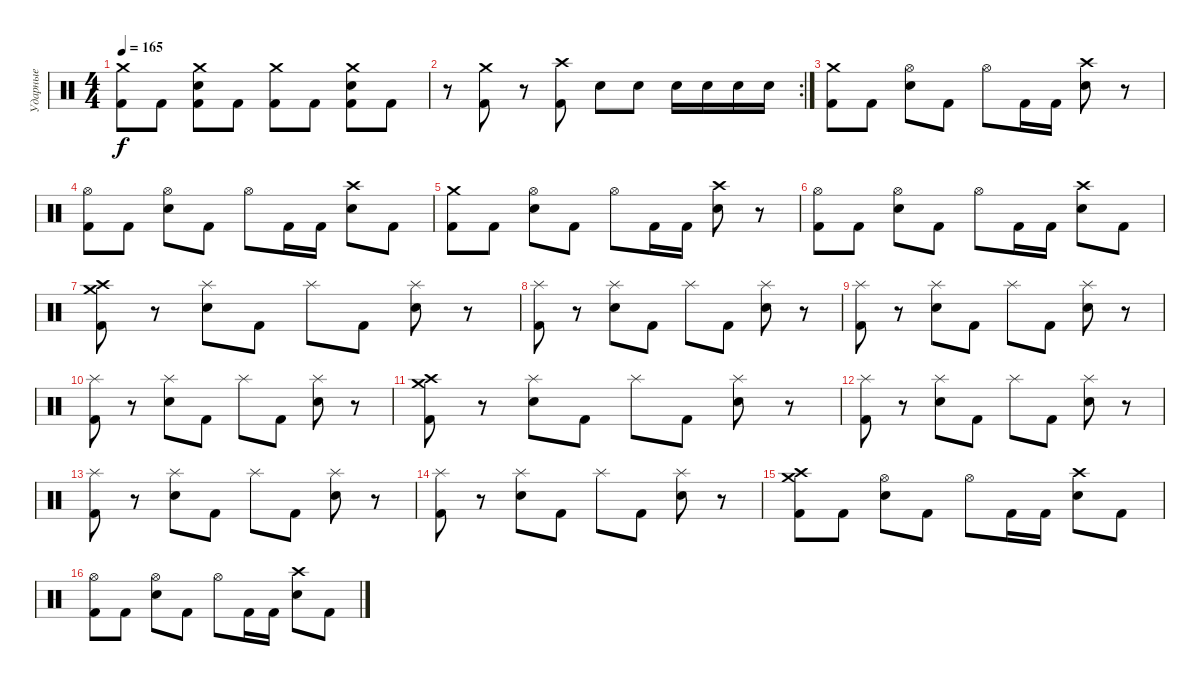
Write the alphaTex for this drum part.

\track ("Ударные" "Ударные") {instrument percussion}
\staff {score}
\articulation defaults
\ts (4 4)
\tempo 165
\clef neutral
\ks c
("Crash medium (hit)" "Kick (hit) 2").8{dy f} "Kick (hit) 2".8 ("Crash medium (hit)" "Electric Snare (hit)" "Kick (hit) 2").8 "Kick (hit) 2".8 ("Crash medium (hit)" "Kick (hit) 2").8 "Kick (hit) 2".8 ("Crash medium (hit)" "Electric Snare (hit)" "Kick (hit) 2").8 "Kick (hit) 2".8 |
\rc 2
r.8 ("Crash medium (hit)" "Kick (hit) 2").8 r.8 ("Crash high (hit)" "Kick (hit) 2").8 "Electric Snare (hit)".8 "Electric Snare (hit)".8 "Electric Snare (hit)".16 "Electric Snare (hit)".16 "Electric Snare (hit)".16 "Electric Snare (hit)".16 |
("Crash medium (hit)" "Kick (hit) 2").8 "Kick (hit) 2".8 ("Hi-Hat (open)" "Electric Snare (hit)").8 "Kick (hit) 2".8 "Hi-Hat (open)".8 "Kick (hit) 2".16 "Kick (hit) 2".16 ("Crash high (hit)" "Electric Snare (hit)").8 r.8 |
("Hi-Hat (open)" "Kick (hit) 2").8 "Kick (hit) 2".8 ("Hi-Hat (open)" "Electric Snare (hit)").8 "Kick (hit) 2".8 "Hi-Hat (open)".8 "Kick (hit) 2".16 "Kick (hit) 2".16 ("Crash high (hit)" "Electric Snare (hit)").8 "Kick (hit) 2".8 |
("Crash medium (hit)" "Kick (hit) 2").8 "Kick (hit) 2".8 ("Hi-Hat (open)" "Electric Snare (hit)").8 "Kick (hit) 2".8 "Hi-Hat (open)".8 "Kick (hit) 2".16 "Kick (hit) 2".16 ("Crash high (hit)" "Electric Snare (hit)").8 r.8 |
("Hi-Hat (open)" "Kick (hit) 2").8 "Kick (hit) 2".8 ("Hi-Hat (open)" "Electric Snare (hit)").8 "Kick (hit) 2".8 "Hi-Hat (open)".8 "Kick (hit) 2".16 "Kick (hit) 2".16 ("Crash high (hit)" "Electric Snare (hit)").8 "Kick (hit) 2".8 |
("Crash medium (hit)" "Crash high (hit)" "Kick (hit) 2").8 r.8 ("Splash (hit)" "Electric Snare (hit)").8 "Kick (hit) 2".8 "Splash (hit)".8 "Kick (hit) 2".8 ("Splash (hit)" "Electric Snare (hit)").8 r.8 |
("Splash (hit)" "Kick (hit) 2").8 r.8 ("Splash (hit)" "Electric Snare (hit)").8 "Kick (hit) 2".8 "Splash (hit)".8 "Kick (hit) 2".8 ("Splash (hit)" "Electric Snare (hit)").8 r.8 |
("Splash (hit)" "Kick (hit) 2").8 r.8 ("Splash (hit)" "Electric Snare (hit)").8 "Kick (hit) 2".8 "Splash (hit)".8 "Kick (hit) 2".8 ("Splash (hit)" "Electric Snare (hit)").8 r.8 |
("Splash (hit)" "Kick (hit) 2").8 r.8 ("Splash (hit)" "Electric Snare (hit)").8 "Kick (hit) 2".8 "Splash (hit)".8 "Kick (hit) 2".8 ("Splash (hit)" "Electric Snare (hit)").8 r.8 |
("Crash medium (hit)" "Crash high (hit)" "Kick (hit) 2").8 r.8 ("Splash (hit)" "Electric Snare (hit)").8 "Kick (hit) 2".8 "Splash (hit)".8 "Kick (hit) 2".8 ("Splash (hit)" "Electric Snare (hit)").8 r.8 |
("Splash (hit)" "Kick (hit) 2").8 r.8 ("Splash (hit)" "Electric Snare (hit)").8 "Kick (hit) 2".8 "Splash (hit)".8 "Kick (hit) 2".8 ("Splash (hit)" "Electric Snare (hit)").8 r.8 |
("Splash (hit)" "Kick (hit) 2").8 r.8 ("Splash (hit)" "Electric Snare (hit)").8 "Kick (hit) 2".8 "Splash (hit)".8 "Kick (hit) 2".8 ("Splash (hit)" "Electric Snare (hit)").8 r.8 |
("Splash (hit)" "Kick (hit) 2").8 r.8 ("Splash (hit)" "Electric Snare (hit)").8 "Kick (hit) 2".8 "Splash (hit)".8 "Kick (hit) 2".8 ("Splash (hit)" "Electric Snare (hit)").8 r.8 |
("Crash medium (hit)" "Crash high (hit)" "Kick (hit) 2").8 "Kick (hit) 2".8 ("Hi-Hat (open)" "Electric Snare (hit)").8 "Kick (hit) 2".8 "Hi-Hat (open)".8 "Kick (hit) 2".16 "Kick (hit) 2".16 ("Crash high (hit)" "Electric Snare (hit)").8 "Kick (hit) 2".8 |
("Hi-Hat (open)" "Kick (hit) 2").8 "Kick (hit) 2".8 ("Hi-Hat (open)" "Electric Snare (hit)").8 "Kick (hit) 2".8 "Hi-Hat (open)".8 "Kick (hit) 2".16 "Kick (hit) 2".16 ("Crash high (hit)" "Electric Snare (hit)").8 "Kick (hit) 2".8
